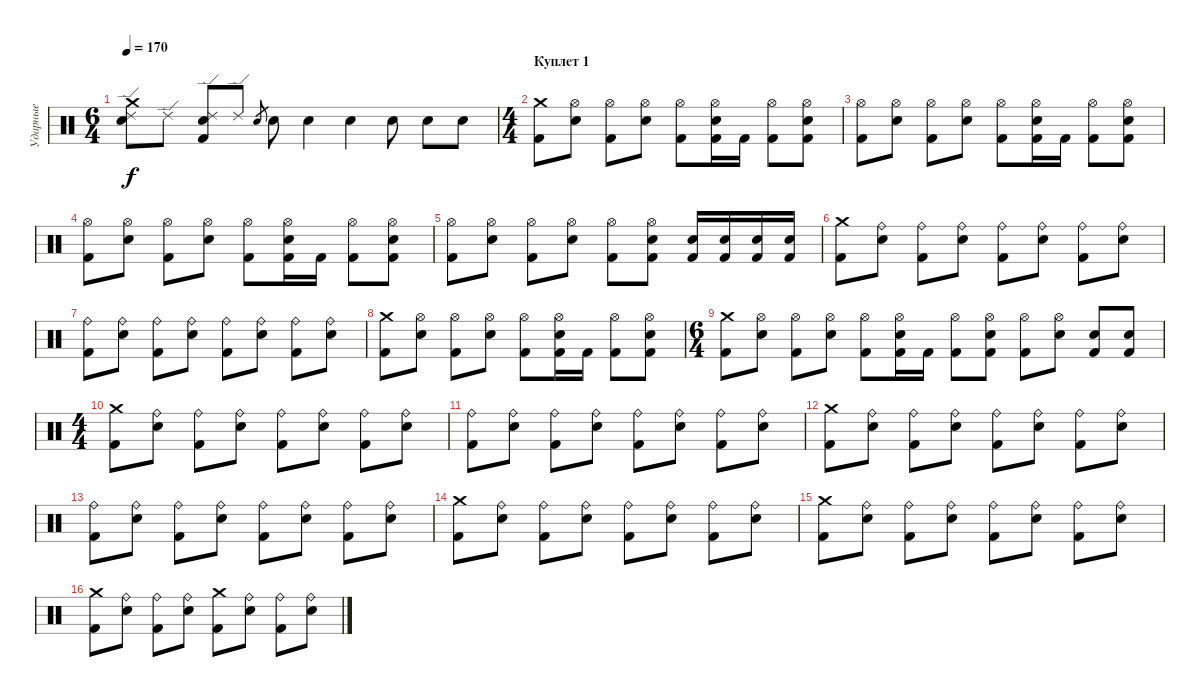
\track ("Ударные" "Ударные") {instrument percussion}
\staff {score}
\articulation defaults
\ts (6 4)
\tempo 170
\clef neutral
\ks c
("Ride (edge) 2" "Electric Snare (hit)" "Crash medium (hit)").8{dy f} "Ride (edge) 2".8 ("Ride (edge) 2" "Kick (hit) 2" "Electric Snare (hit)").8 "Ride (edge) 2".8 "Electric Snare (hit)".8{gr} "Electric Snare (hit)".8 "Electric Snare (hit)".4 "Electric Snare (hit)".4 "Electric Snare (hit)".8 "Electric Snare (hit)".8 "Electric Snare (hit)".8 |
\ts (4 4)
\section ("" "Куплет 1")
("Crash medium (hit)" "Kick (hit) 2").8 ("Hi-Hat (open)" "Electric Snare (hit)").8 ("Hi-Hat (open)" "Kick (hit) 2").8 ("Hi-Hat (open)" "Electric Snare (hit)").8 ("Hi-Hat (open)" "Kick (hit) 2").8 ("Hi-Hat (open)" "Kick (hit) 2" "Electric Snare (hit)").16 "Kick (hit) 2".16 ("Hi-Hat (open)" "Kick (hit) 2").8 ("Hi-Hat (open)" "Kick (hit) 2" "Electric Snare (hit)").8 |
("Hi-Hat (open)" "Kick (hit) 2").8 ("Hi-Hat (open)" "Electric Snare (hit)").8 ("Hi-Hat (open)" "Kick (hit) 2").8 ("Hi-Hat (open)" "Electric Snare (hit)").8 ("Hi-Hat (open)" "Kick (hit) 2").8 ("Hi-Hat (open)" "Kick (hit) 2" "Electric Snare (hit)").16 "Kick (hit) 2".16 ("Hi-Hat (open)" "Kick (hit) 2").8 ("Hi-Hat (open)" "Kick (hit) 2" "Electric Snare (hit)").8 |
("Hi-Hat (open)" "Kick (hit) 2").8 ("Hi-Hat (open)" "Electric Snare (hit)").8 ("Hi-Hat (open)" "Kick (hit) 2").8 ("Hi-Hat (open)" "Electric Snare (hit)").8 ("Hi-Hat (open)" "Kick (hit) 2").8 ("Hi-Hat (open)" "Kick (hit) 2" "Electric Snare (hit)").16 "Kick (hit) 2".16 ("Hi-Hat (open)" "Kick (hit) 2").8 ("Hi-Hat (open)" "Kick (hit) 2" "Electric Snare (hit)").8 |
("Hi-Hat (open)" "Kick (hit) 2").8 ("Hi-Hat (open)" "Electric Snare (hit)").8 ("Hi-Hat (open)" "Kick (hit) 2").8 ("Hi-Hat (open)" "Electric Snare (hit)").8 ("Hi-Hat (open)" "Kick (hit) 2").8 ("Hi-Hat (open)" "Kick (hit) 2" "Electric Snare (hit)").8 ("Electric Snare (hit)" "Kick (hit) 2").16 ("Electric Snare (hit)" "Kick (hit) 2").16 ("Electric Snare (hit)" "Kick (hit) 2").16 ("Electric Snare (hit)" "Kick (hit) 2").16 |
("Crash medium (hit)" "Kick (hit) 2").8 ("Ride (bell)" "Electric Snare (hit)").8 ("Ride (bell)" "Kick (hit) 2").8 ("Ride (bell)" "Electric Snare (hit)").8 ("Ride (bell)" "Kick (hit) 2").8 ("Ride (bell)" "Electric Snare (hit)").8 ("Ride (bell)" "Kick (hit) 2").8 ("Ride (bell)" "Electric Snare (hit)").8 |
("Ride (bell)" "Kick (hit) 2").8 ("Ride (bell)" "Electric Snare (hit)").8 ("Ride (bell)" "Kick (hit) 2").8 ("Ride (bell)" "Electric Snare (hit)").8 ("Ride (bell)" "Kick (hit) 2").8 ("Ride (bell)" "Electric Snare (hit)").8 ("Ride (bell)" "Kick (hit) 2").8 ("Ride (bell)" "Electric Snare (hit)").8 |
("Crash medium (hit)" "Kick (hit) 2").8 ("Hi-Hat (open)" "Electric Snare (hit)").8 ("Hi-Hat (open)" "Kick (hit) 2").8 ("Hi-Hat (open)" "Electric Snare (hit)").8 ("Hi-Hat (open)" "Kick (hit) 2").8 ("Hi-Hat (open)" "Kick (hit) 2" "Electric Snare (hit)").16 "Kick (hit) 2".16 ("Hi-Hat (open)" "Kick (hit) 2").8 ("Hi-Hat (open)" "Kick (hit) 2" "Electric Snare (hit)").8 |
\ts (6 4)
("Crash medium (hit)" "Kick (hit) 2").8 ("Hi-Hat (open)" "Electric Snare (hit)").8 ("Hi-Hat (open)" "Kick (hit) 2").8 ("Hi-Hat (open)" "Electric Snare (hit)").8 ("Hi-Hat (open)" "Kick (hit) 2").8 ("Hi-Hat (open)" "Kick (hit) 2" "Electric Snare (hit)").16 "Kick (hit) 2".16 ("Hi-Hat (open)" "Kick (hit) 2").8 ("Hi-Hat (open)" "Kick (hit) 2" "Electric Snare (hit)").8 ("Hi-Hat (open)" "Kick (hit) 2").8 ("Hi-Hat (open)" "Electric Snare (hit)").8 ("Electric Snare (hit)" "Kick (hit) 2").8 ("Electric Snare (hit)" "Kick (hit) 2").8 |
\ts (4 4)
("Crash medium (hit)" "Kick (hit) 2").8 ("Ride (bell)" "Electric Snare (hit)").8 ("Ride (bell)" "Kick (hit) 2").8 ("Ride (bell)" "Electric Snare (hit)").8 ("Ride (bell)" "Kick (hit) 2").8 ("Ride (bell)" "Electric Snare (hit)").8 ("Ride (bell)" "Kick (hit) 2").8 ("Ride (bell)" "Electric Snare (hit)").8 |
("Ride (bell)" "Kick (hit) 2").8 ("Ride (bell)" "Electric Snare (hit)").8 ("Ride (bell)" "Kick (hit) 2").8 ("Ride (bell)" "Electric Snare (hit)").8 ("Ride (bell)" "Kick (hit) 2").8 ("Ride (bell)" "Electric Snare (hit)").8 ("Ride (bell)" "Kick (hit) 2").8 ("Ride (bell)" "Electric Snare (hit)").8 |
("Crash medium (hit)" "Kick (hit) 2").8 ("Ride (bell)" "Electric Snare (hit)").8 ("Ride (bell)" "Kick (hit) 2").8 ("Ride (bell)" "Electric Snare (hit)").8 ("Ride (bell)" "Kick (hit) 2").8 ("Ride (bell)" "Electric Snare (hit)").8 ("Ride (bell)" "Kick (hit) 2").8 ("Ride (bell)" "Electric Snare (hit)").8 |
("Ride (bell)" "Kick (hit) 2").8 ("Ride (bell)" "Electric Snare (hit)").8 ("Ride (bell)" "Kick (hit) 2").8 ("Ride (bell)" "Electric Snare (hit)").8 ("Ride (bell)" "Kick (hit) 2").8 ("Ride (bell)" "Electric Snare (hit)").8 ("Ride (bell)" "Kick (hit) 2").8 ("Ride (bell)" "Electric Snare (hit)").8 |
("Crash medium (hit)" "Kick (hit) 2").8 ("Ride (bell)" "Electric Snare (hit)").8 ("Ride (bell)" "Kick (hit) 2").8 ("Ride (bell)" "Electric Snare (hit)").8 ("Ride (bell)" "Kick (hit) 2").8 ("Ride (bell)" "Electric Snare (hit)").8 ("Ride (bell)" "Kick (hit) 2").8 ("Ride (bell)" "Electric Snare (hit)").8 |
("Crash medium (hit)" "Kick (hit) 2").8 ("Ride (bell)" "Electric Snare (hit)").8 ("Ride (bell)" "Kick (hit) 2").8 ("Ride (bell)" "Electric Snare (hit)").8 ("Ride (bell)" "Kick (hit) 2").8 ("Ride (bell)" "Electric Snare (hit)").8 ("Ride (bell)" "Kick (hit) 2").8 ("Ride (bell)" "Electric Snare (hit)").8 |
("Crash medium (hit)" "Kick (hit) 2").8 ("Ride (bell)" "Electric Snare (hit)").8 ("Ride (bell)" "Kick (hit) 2").8 ("Ride (bell)" "Electric Snare (hit)").8 ("Crash medium (hit)" "Kick (hit) 2").8 ("Ride (bell)" "Electric Snare (hit)").8 ("Ride (bell)" "Kick (hit) 2").8 ("Ride (bell)" "Electric Snare (hit)").8
